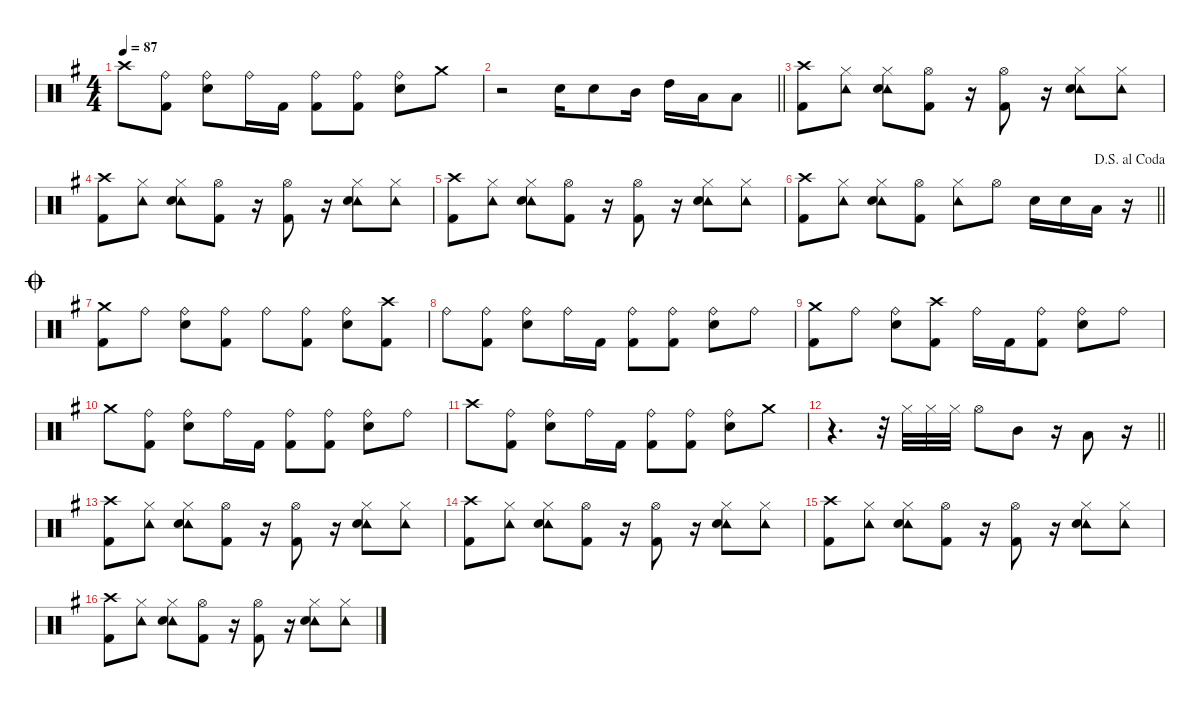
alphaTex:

\defaultSystemsLayout 4
\hideDynamics
\bracketExtendMode nobrackets
\singleTrackTrackNamePolicy hidden
\multiTrackTrackNamePolicy hidden
\otherSystemsTrackNameOrientation horizontal
\track ("Drums" "drm.") {defaultSystemsLayout 4 instrument percussion}
\staff {score}
\articulation defaults
\ts (4 4)
\tempo 87
\clef neutral
\ks eminor "Crash high (hit)"{acc forcenatural}.8{dy f beam Down}
("Ride (bell)"{acc forcenatural} "Kick (hit) 2"{acc forcenatural}).8{beam Down} ("Ride (bell)"{acc forcenatural} "Snare (hit) 2"{acc forcenatural}).8{beam Down} "Ride (bell)"{acc forcenatural}.16{beam Down} "Kick (hit) 2"{acc forcenatural}.16{beam Down} ("Ride (bell)"{acc forcenatural} "Kick (hit) 2"{acc forcenatural}).8{beam Down} ("Ride (bell)"{acc forcenatural} "Kick (hit) 2"{acc forcenatural}).8{beam Down} ("Ride (bell)"{acc forcenatural} "Snare (hit) 2"{acc forcenatural}).8{beam Down} "Crash medium (hit)"{acc forcenatural}.8{beam Down} |
\barLineRight lightlight
r.2{beam Down} "Snare (hit) 2"{acc forcenatural}.16{beam Down} "Snare (hit) 2"{acc forcenatural}.8{beam Down} "Mid Tom (hit)"{acc forcenatural}.16{beam Down} "High Tom (hit)"{acc forcenatural}.16{beam Down} "Low Tom (hit)"{acc forcenatural}.16{beam Down} "Low Floor Tom (hit)"{acc forcenatural}.8{beam Down} |
("Crash high (hit)"{acc forcenatural} "Kick (hit) 2"{acc forcenatural}).8{beam Down} ("Tambourine (hit)"{acc forcenatural} "Hi-Hat (closed)"{acc forcenatural}).8{beam Down} ("Tambourine (hit)"{acc forcenatural} "Hi-Hat (closed)"{acc forcenatural} "Snare (hit) 2"{acc forcenatural}).8{beam Down} ("Hi-Hat (open)"{acc forcenatural} "Kick (hit) 2"{acc forcenatural}).8{beam Down} r.16{beam Down} ("Hi-Hat (open)"{acc forcenatural} "Kick (hit) 2"{acc forcenatural}).8{beam Down} r.16{beam Down} ("Tambourine (hit)"{acc forcenatural} "Hi-Hat (closed)"{acc forcenatural} "Snare (hit) 2"{acc forcenatural}).8{beam Down} ("Tambourine (hit)"{acc forcenatural} "Hi-Hat (closed)"{acc forcenatural}).8{beam Down} |
("Crash high (hit)"{acc forcenatural} "Kick (hit) 2"{acc forcenatural}).8{beam Down} ("Tambourine (hit)"{acc forcenatural} "Hi-Hat (closed)"{acc forcenatural}).8{beam Down} ("Tambourine (hit)"{acc forcenatural} "Hi-Hat (closed)"{acc forcenatural} "Snare (hit) 2"{acc forcenatural}).8{beam Down} ("Hi-Hat (open)"{acc forcenatural} "Kick (hit) 2"{acc forcenatural}).8{beam Down} r.16{beam Down} ("Hi-Hat (open)"{acc forcenatural} "Kick (hit) 2"{acc forcenatural}).8{beam Down} r.16{beam Down} ("Tambourine (hit)"{acc forcenatural} "Hi-Hat (closed)"{acc forcenatural} "Snare (hit) 2"{acc forcenatural}).8{beam Down} ("Tambourine (hit)"{acc forcenatural} "Hi-Hat (closed)"{acc forcenatural}).8{beam Down} |
("Crash high (hit)"{acc forcenatural} "Kick (hit) 2"{acc forcenatural}).8{beam Down} ("Tambourine (hit)"{acc forcenatural} "Hi-Hat (closed)"{acc forcenatural}).8{beam Down} ("Tambourine (hit)"{acc forcenatural} "Hi-Hat (closed)"{acc forcenatural} "Snare (hit) 2"{acc forcenatural}).8{beam Down} ("Hi-Hat (open)"{acc forcenatural} "Kick (hit) 2"{acc forcenatural}).8{beam Down} r.16{beam Down} ("Hi-Hat (open)"{acc forcenatural} "Kick (hit) 2"{acc forcenatural}).8{beam Down} r.16{beam Down} ("Tambourine (hit)"{acc forcenatural} "Hi-Hat (closed)"{acc forcenatural} "Snare (hit) 2"{acc forcenatural}).8{beam Down} ("Tambourine (hit)"{acc forcenatural} "Hi-Hat (closed)"{acc forcenatural}).8{beam Down} |
\jump dalsegnoalcoda
\barLineRight lightlight
("Crash high (hit)"{acc forcenatural} "Kick (hit) 2"{acc forcenatural}).8{beam Down} ("Tambourine (hit)"{acc forcenatural} "Hi-Hat (closed)"{acc forcenatural}).8{beam Down} ("Tambourine (hit)"{acc forcenatural} "Hi-Hat (closed)"{acc forcenatural} "Snare (hit) 2"{acc forcenatural}).8{beam Down} ("Hi-Hat (open)"{acc forcenatural} "Kick (hit) 2"{acc forcenatural}).8{beam Down} ("Tambourine (hit)"{acc forcenatural} "Hi-Hat (closed)"{acc forcenatural}).8{beam Down} "Hi-Hat (open)"{acc forcenatural}.8{beam Down} "Snare (hit) 2"{acc forcenatural}.16{beam Down} "Snare (hit) 2"{acc forcenatural}.16{beam Down} "Low Tom (hit)"{acc forcenatural}.16{beam Down} r.16{beam Down} |
\jump coda
("Crash medium (hit)"{acc forcenatural} "Kick (hit) 2"{acc forcenatural}).8{beam Down} "Ride (bell)"{acc forcenatural}.8{beam Down} ("Ride (bell)"{acc forcenatural} "Snare (hit) 2"{acc forcenatural}).8{beam Down} ("Ride (bell)"{acc forcenatural} "Kick (hit) 2"{acc forcenatural}).8{beam Down} "Ride (bell)"{acc forcenatural}.8{beam Down} ("Ride (bell)"{acc forcenatural} "Kick (hit) 2"{acc forcenatural}).8{beam Down} ("Ride (bell)"{acc forcenatural} "Snare (hit) 2"{acc forcenatural}).8{beam Down} ("Crash high (hit)"{acc forcenatural} "Kick (hit) 2"{acc forcenatural}).8{beam Down} |
"Ride (bell)"{acc forcenatural}.8{beam Down} ("Ride (bell)"{acc forcenatural} "Kick (hit) 2"{acc forcenatural}).8{beam Down} ("Ride (bell)"{acc forcenatural} "Snare (hit) 2"{acc forcenatural}).8{beam Down} "Ride (bell)"{acc forcenatural}.16{beam Down} "Kick (hit) 2"{acc forcenatural}.16{beam Down} ("Ride (bell)"{acc forcenatural} "Kick (hit) 2"{acc forcenatural}).8{beam Down} ("Ride (bell)"{acc forcenatural} "Kick (hit) 2"{acc forcenatural}).8{beam Down} ("Ride (bell)"{acc forcenatural} "Snare (hit) 2"{acc forcenatural}).8{beam Down} "Ride (bell)"{acc forcenatural}.8{beam Down} |
("Crash medium (hit)"{acc forcenatural} "Kick (hit) 2"{acc forcenatural}).8{beam Down} "Ride (bell)"{acc forcenatural}.8{beam Down} ("Ride (bell)"{acc forcenatural} "Snare (hit) 2"{acc forcenatural}).8{beam Down} ("Crash high (hit)"{acc forcenatural} "Kick (hit) 2"{acc forcenatural}).8{beam Down} "Ride (bell)"{acc forcenatural}.16{beam Down} "Kick (hit) 2"{acc forcenatural}.16{beam Down} ("Ride (bell)"{acc forcenatural} "Kick (hit) 2"{acc forcenatural}).8{beam Down} ("Ride (bell)"{acc forcenatural} "Snare (hit) 2"{acc forcenatural}).8{beam Down} "Ride (bell)"{acc forcenatural}.8{beam Down} |
"Crash medium (hit)"{acc forcenatural}.8{beam Down} ("Ride (bell)"{acc forcenatural} "Kick (hit) 2"{acc forcenatural}).8{beam Down} ("Ride (bell)"{acc forcenatural} "Snare (hit) 2"{acc forcenatural}).8{beam Down} "Ride (bell)"{acc forcenatural}.16{beam Down} "Kick (hit) 2"{acc forcenatural}.16{beam Down} ("Ride (bell)"{acc forcenatural} "Kick (hit) 2"{acc forcenatural}).8{beam Down} ("Ride (bell)"{acc forcenatural} "Kick (hit) 2"{acc forcenatural}).8{beam Down} ("Ride (bell)"{acc forcenatural} "Snare (hit) 2"{acc forcenatural}).8{beam Down} "Ride (bell)"{acc forcenatural}.8{beam Down} |
"Crash high (hit)"{acc forcenatural}.8{beam Down} ("Ride (bell)"{acc forcenatural} "Kick (hit) 2"{acc forcenatural}).8{beam Down} ("Ride (bell)"{acc forcenatural} "Snare (hit) 2"{acc forcenatural}).8{beam Down} "Ride (bell)"{acc forcenatural}.16{beam Down} "Kick (hit) 2"{acc forcenatural}.16{beam Down} ("Ride (bell)"{acc forcenatural} "Kick (hit) 2"{acc forcenatural}).8{beam Down} ("Ride (bell)"{acc forcenatural} "Kick (hit) 2"{acc forcenatural}).8{beam Down} ("Ride (bell)"{acc forcenatural} "Snare (hit) 2"{acc forcenatural}).8{beam Down} "Crash medium (hit)"{acc forcenatural}.8{beam Down} |
\barLineRight lightlight
r.4{d beam Down} r.32{beam Down} "Hi-Hat (closed)"{acc forcenatural}.32{beam Down} "Hi-Hat (closed)"{acc forcenatural}.32{beam Down} "Hi-Hat (closed)"{acc forcenatural}.32{beam Down} "Hi-Hat (open)"{acc forcenatural}.8{beam Down} "Mid Tom (hit)"{acc forcenatural}.8{beam Down} r.16{beam Down} "Low Floor Tom (hit)"{acc forcenatural}.8{beam Up} r.16{beam Up} |
("Crash high (hit)"{acc forcenatural} "Kick (hit) 2"{acc forcenatural}).8{beam Down} ("Tambourine (hit)"{acc forcenatural} "Hi-Hat (closed)"{acc forcenatural}).8{beam Down} ("Tambourine (hit)"{acc forcenatural} "Hi-Hat (closed)"{acc forcenatural} "Snare (hit) 2"{acc forcenatural}).8{beam Down} ("Hi-Hat (open)"{acc forcenatural} "Kick (hit) 2"{acc forcenatural}).8{beam Down} r.16{beam Down} ("Hi-Hat (open)"{acc forcenatural} "Kick (hit) 2"{acc forcenatural}).8{beam Down} r.16{beam Down} ("Tambourine (hit)"{acc forcenatural} "Hi-Hat (closed)"{acc forcenatural} "Snare (hit) 2"{acc forcenatural}).8{beam Down} ("Tambourine (hit)"{acc forcenatural} "Hi-Hat (closed)"{acc forcenatural}).8{beam Down} |
("Crash high (hit)"{acc forcenatural} "Kick (hit) 2"{acc forcenatural}).8{beam Down} ("Tambourine (hit)"{acc forcenatural} "Hi-Hat (closed)"{acc forcenatural}).8{beam Down} ("Tambourine (hit)"{acc forcenatural} "Hi-Hat (closed)"{acc forcenatural} "Snare (hit) 2"{acc forcenatural}).8{beam Down} ("Hi-Hat (open)"{acc forcenatural} "Kick (hit) 2"{acc forcenatural}).8{beam Down} r.16{beam Down} ("Hi-Hat (open)"{acc forcenatural} "Kick (hit) 2"{acc forcenatural}).8{beam Down} r.16{beam Down} ("Tambourine (hit)"{acc forcenatural} "Hi-Hat (closed)"{acc forcenatural} "Snare (hit) 2"{acc forcenatural}).8{beam Down} ("Tambourine (hit)"{acc forcenatural} "Hi-Hat (closed)"{acc forcenatural}).8{beam Down} |
("Crash high (hit)"{acc forcenatural} "Kick (hit) 2"{acc forcenatural}).8{beam Down} ("Tambourine (hit)"{acc forcenatural} "Hi-Hat (closed)"{acc forcenatural}).8{beam Down} ("Tambourine (hit)"{acc forcenatural} "Hi-Hat (closed)"{acc forcenatural} "Snare (hit) 2"{acc forcenatural}).8{beam Down} ("Hi-Hat (open)"{acc forcenatural} "Kick (hit) 2"{acc forcenatural}).8{beam Down} r.16{beam Down} ("Hi-Hat (open)"{acc forcenatural} "Kick (hit) 2"{acc forcenatural}).8{beam Down} r.16{beam Down} ("Tambourine (hit)"{acc forcenatural} "Hi-Hat (closed)"{acc forcenatural} "Snare (hit) 2"{acc forcenatural}).8{beam Down} ("Tambourine (hit)"{acc forcenatural} "Hi-Hat (closed)"{acc forcenatural}).8{beam Down} |
("Crash high (hit)"{acc forcenatural} "Kick (hit) 2"{acc forcenatural}).8{beam Down} ("Tambourine (hit)"{acc forcenatural} "Hi-Hat (closed)"{acc forcenatural}).8{beam Down} ("Tambourine (hit)"{acc forcenatural} "Hi-Hat (closed)"{acc forcenatural} "Snare (hit) 2"{acc forcenatural}).8{beam Down} ("Hi-Hat (open)"{acc forcenatural} "Kick (hit) 2"{acc forcenatural}).8{beam Down} r.16{beam Down} ("Hi-Hat (open)"{acc forcenatural} "Kick (hit) 2"{acc forcenatural}).8{beam Down} r.16{beam Down} ("Tambourine (hit)"{acc forcenatural} "Hi-Hat (closed)"{acc forcenatural} "Snare (hit) 2"{acc forcenatural}).8{beam Down} ("Tambourine (hit)"{acc forcenatural} "Hi-Hat (closed)"{acc forcenatural}).8{beam Down}
